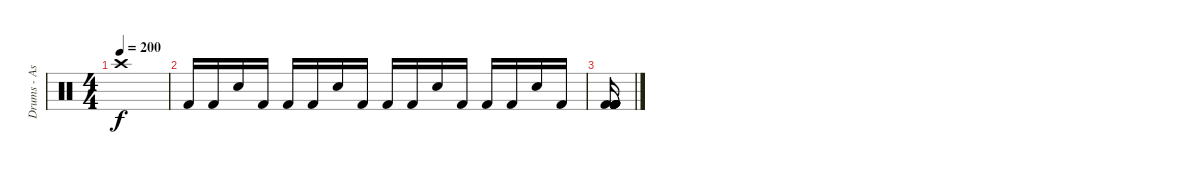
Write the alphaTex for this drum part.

\track ("Drums - Ash" "Drums - As") {instrument percussion}
\staff {score}
\articulation defaults
\ts (4 4)
\tempo 200
\clef neutral
\ks c "Crash high (hit)".1{dy f}
|
"Kick (hit) 2".16 "Kick (hit) 2".16 "Snare (hit) 2".16 "Kick (hit) 2".16 "Kick (hit) 2".16 "Kick (hit) 2".16 "Snare (hit) 2".16 "Kick (hit) 2".16 "Kick (hit) 2".16 "Kick (hit) 2".16 "Snare (hit) 2".16 "Kick (hit) 2".16 "Kick (hit) 2".16 "Kick (hit) 2".16 "Snare (hit) 2".16 "Kick (hit) 2".16 |
("Kick (hit) 2" "Kick (hit) 2" "Kick (hit) 2" "Kick (hit) 2" "Kick (hit) 2" "Kick (hit) 2").16
